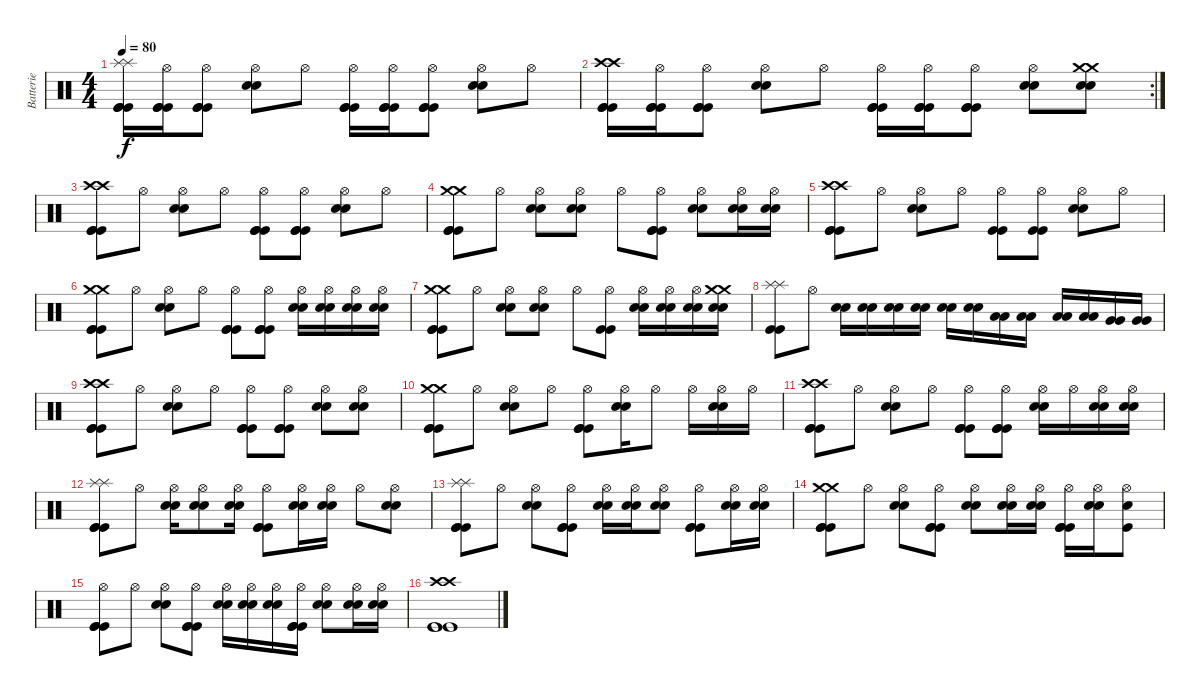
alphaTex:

\track ("Batterie" "Batterie") {instrument percussion}
\staff {score}
\articulation defaults
\ts (4 4)
\tempo 80
\clef neutral
\ks c
("Splash (hit)" "Kick (hit)" "Kick (hit)" "Kick (hit)" "Splash (hit)").16{dy f} ("Kick (hit)" "Kick (hit)" "Kick (hit)" "Hi-Hat (open)").16 ("Kick (hit)" "Kick (hit)" "Hi-Hat (open)" "Kick (hit)").8 ("Snare (hit) 2" "Snare (hit) 2" "Hi-Hat (open)").8 "Hi-Hat (open)".8 ("Kick (hit)" "Kick (hit)" "Kick (hit)" "Hi-Hat (open)").16 ("Kick (hit)" "Hi-Hat (open)" "Kick (hit)" "Kick (hit)").16 ("Kick (hit)" "Kick (hit)" "Hi-Hat (open)" "Kick (hit)").8 ("Snare (hit) 2" "Snare (hit) 2" "Hi-Hat (open)").8 "Hi-Hat (open)".8 |
\rc 2
("Crash high (hit)" "Kick (hit)" "Kick (hit)" "Kick (hit)" "Crash high (hit)").16 ("Kick (hit)" "Kick (hit)" "Kick (hit)" "Hi-Hat (open)").16 ("Kick (hit)" "Kick (hit)" "Hi-Hat (open)" "Kick (hit)").8 ("Snare (hit) 2" "Snare (hit) 2" "Hi-Hat (open)").8 "Hi-Hat (open)".8 ("Kick (hit)" "Kick (hit)" "Hi-Hat (open)" "Kick (hit)").16 ("Kick (hit)" "Kick (hit)" "Kick (hit)" "Hi-Hat (open)").16 ("Kick (hit)" "Kick (hit)" "Hi-Hat (open)" "Kick (hit)").8 ("Snare (hit) 2" "Snare (hit) 2" "Hi-Hat (open)").8 ("Snare (hit) 2" "Snare (hit) 2" "Crash medium (hit)" "Crash medium (hit)").8 |
("Crash high (hit)" "Kick (hit)" "Kick (hit)" "Kick (hit)" "Crash high (hit)").8 "Hi-Hat (open)".8 ("Hi-Hat (open)" "Snare (hit) 2" "Snare (hit) 2").8 "Hi-Hat (open)".8 ("Hi-Hat (open)" "Kick (hit)" "Kick (hit)" "Kick (hit)").8 ("Hi-Hat (open)" "Kick (hit)" "Kick (hit)" "Kick (hit)").8 ("Hi-Hat (open)" "Snare (hit) 2" "Snare (hit) 2").8 "Hi-Hat (open)".8 |
("Crash medium (hit)" "Kick (hit)" "Kick (hit)" "Kick (hit)" "Crash medium (hit)").8 "Hi-Hat (open)".8 ("Hi-Hat (open)" "Snare (hit) 2" "Snare (hit) 2").8 ("Hi-Hat (open)" "Snare (hit) 2" "Snare (hit) 2").8 "Hi-Hat (open)".8 ("Hi-Hat (open)" "Kick (hit)" "Kick (hit)" "Kick (hit)").8 ("Hi-Hat (open)" "Snare (hit) 2" "Snare (hit) 2").8 ("Hi-Hat (open)" "Snare (hit) 2" "Snare (hit) 2").16 ("Hi-Hat (open)" "Snare (hit) 2" "Snare (hit) 2").16 |
("Crash high (hit)" "Kick (hit)" "Kick (hit)" "Kick (hit)" "Crash high (hit)").8 "Hi-Hat (open)".8 ("Hi-Hat (open)" "Snare (hit) 2" "Snare (hit) 2").8 "Hi-Hat (open)".8 ("Hi-Hat (open)" "Kick (hit)" "Kick (hit)").8 ("Hi-Hat (open)" "Kick (hit)" "Kick (hit)").8 ("Hi-Hat (open)" "Snare (hit) 2" "Snare (hit) 2").8 "Hi-Hat (open)".8 |
("Crash medium (hit)" "Kick (hit)" "Kick (hit)" "Kick (hit)" "Crash medium (hit)").8 "Hi-Hat (open)".8 ("Hi-Hat (open)" "Snare (hit) 2" "Snare (hit) 2").8 "Hi-Hat (open)".8 ("Hi-Hat (open)" "Kick (hit)" "Kick (hit)" "Kick (hit)").8 ("Hi-Hat (open)" "Kick (hit)" "Kick (hit)" "Kick (hit)").8 ("Hi-Hat (open)" "Snare (hit) 2" "Snare (hit) 2").16 ("Hi-Hat (open)" "Snare (hit) 2" "Snare (hit) 2").16 ("Hi-Hat (open)" "Snare (hit) 2" "Snare (hit) 2").16 ("Hi-Hat (open)" "Snare (hit) 2" "Snare (hit) 2").16 |
("Crash medium (hit)" "Crash medium (hit)" "Kick (hit)" "Kick (hit)" "Kick (hit)").8 "Hi-Hat (open)".8 ("Hi-Hat (open)" "Snare (hit) 2" "Snare (hit) 2").8 ("Hi-Hat (open)" "Snare (hit) 2" "Snare (hit) 2").8 "Hi-Hat (open)".8 ("Hi-Hat (open)" "Kick (hit)" "Kick (hit)").8 ("Hi-Hat (open)" "Snare (hit) 2" "Snare (hit) 2").16 ("Hi-Hat (open)" "Snare (hit) 2" "Snare (hit) 2").16 ("Hi-Hat (open)" "Snare (hit) 2" "Snare (hit) 2").16 ("Crash medium (hit)" "Crash medium (hit)" "Snare (hit) 2" "Snare (hit) 2").16 |
("Splash (hit)" "Splash (hit)" "Kick (hit)" "Kick (hit)").8 "Hi-Hat (open)".8 ("Snare (hit) 2" "Snare (hit) 2").16 ("Snare (hit) 2" "Snare (hit) 2").16 ("Snare (hit) 2" "Snare (hit) 2").16 ("Snare (hit) 2" "Snare (hit) 2").16 ("Snare (hit) 2" "Snare (hit) 2").16 ("Snare (hit) 2" "Snare (hit) 2").16 ("Low Tom (hit)" "Low Tom (hit)").16 ("Low Tom (hit)" "Low Tom (hit)").16 ("Low Tom (hit)" "Low Tom (hit)").16 ("Low Tom (hit)" "Low Tom (hit)").16 ("Very Low Tom (hit)" "Very Low Tom (hit)").16 ("Very Low Tom (hit)" "Very Low Tom (hit)").16 |
("Crash high (hit)" "Kick (hit)" "Kick (hit)" "Kick (hit)" "Crash high (hit)").8 "Hi-Hat (open)".8 ("Hi-Hat (open)" "Snare (hit) 2" "Snare (hit) 2").8 "Hi-Hat (open)".8 ("Hi-Hat (open)" "Kick (hit)" "Kick (hit)" "Kick (hit)").8 ("Hi-Hat (open)" "Kick (hit)" "Kick (hit)" "Kick (hit)").8 ("Hi-Hat (open)" "Snare (hit) 2" "Snare (hit) 2").8 ("Hi-Hat (open)" "Snare (hit) 2" "Snare (hit) 2").8 |
("Crash medium (hit)" "Kick (hit)" "Kick (hit)" "Kick (hit)" "Crash medium (hit)").8 "Hi-Hat (open)".8 ("Hi-Hat (open)" "Snare (hit) 2" "Snare (hit) 2").8 "Hi-Hat (open)".8 ("Hi-Hat (open)" "Kick (hit)" "Kick (hit)" "Kick (hit)").8 ("Hi-Hat (open)" "Snare (hit) 2" "Snare (hit) 2").16 "Hi-Hat (open)".8 "Hi-Hat (open)".16 ("Hi-Hat (open)" "Snare (hit) 2" "Snare (hit) 2").16 "Hi-Hat (open)".16 |
("Crash high (hit)" "Kick (hit)" "Kick (hit)" "Kick (hit)" "Crash high (hit)").8 "Hi-Hat (open)".8 ("Hi-Hat (open)" "Snare (hit) 2" "Snare (hit) 2").8 "Hi-Hat (open)".8 ("Hi-Hat (open)" "Kick (hit)" "Kick (hit)" "Kick (hit)").8 ("Hi-Hat (open)" "Kick (hit)" "Kick (hit)" "Kick (hit)").8 ("Hi-Hat (open)" "Snare (hit) 2" "Snare (hit) 2").16 "Hi-Hat (open)".16 ("Hi-Hat (open)" "Snare (hit) 2" "Snare (hit) 2").16 ("Hi-Hat (open)" "Snare (hit) 2" "Snare (hit) 2").16 |
("Splash (hit)" "Kick (hit)" "Kick (hit)" "Kick (hit)" "Splash (hit)").8 "Hi-Hat (open)".8 ("Hi-Hat (open)" "Snare (hit) 2" "Snare (hit) 2").16 ("Hi-Hat (open)" "Snare (hit) 2" "Snare (hit) 2").8 ("Hi-Hat (open)" "Snare (hit) 2" "Snare (hit) 2").16 ("Hi-Hat (open)" "Kick (hit)" "Kick (hit)" "Kick (hit)").8 ("Hi-Hat (open)" "Snare (hit) 2" "Snare (hit) 2").16 ("Hi-Hat (open)" "Snare (hit) 2" "Snare (hit) 2").16 "Hi-Hat (open)".8 ("Hi-Hat (open)" "Snare (hit) 2" "Snare (hit) 2").8 |
("Splash (hit)" "Kick (hit)" "Kick (hit)" "Kick (hit)" "Splash (hit)").8 "Hi-Hat (open)".8 ("Hi-Hat (open)" "Snare (hit) 2" "Snare (hit) 2").8 ("Hi-Hat (open)" "Kick (hit)" "Kick (hit)" "Kick (hit)").8 ("Hi-Hat (open)" "Snare (hit) 2" "Snare (hit) 2").16 ("Hi-Hat (open)" "Snare (hit) 2" "Snare (hit) 2").16 ("Hi-Hat (open)" "Snare (hit) 2" "Snare (hit) 2").8 ("Hi-Hat (open)" "Kick (hit)" "Kick (hit)" "Kick (hit)").8 ("Hi-Hat (open)" "Snare (hit) 2" "Snare (hit) 2").16 ("Hi-Hat (open)" "Snare (hit) 2" "Snare (hit) 2").16 |
("Crash medium (hit)" "Kick (hit)" "Kick (hit)" "Kick (hit)" "Crash medium (hit)").8 "Hi-Hat (open)".8 ("Hi-Hat (open)" "Snare (hit) 2" "Snare (hit) 2").8 ("Hi-Hat (open)" "Kick (hit)" "Kick (hit)" "Kick (hit)").8 ("Hi-Hat (open)" "Snare (hit) 2" "Snare (hit) 2").8 ("Hi-Hat (open)" "Snare (hit) 2" "Snare (hit) 2").16 ("Hi-Hat (open)" "Snare (hit) 2" "Snare (hit) 2").16 ("Hi-Hat (open)" "Kick (hit)" "Kick (hit)" "Kick (hit)").16 ("Hi-Hat (open)" "Snare (hit) 2" "Snare (hit) 2").16 ("Hi-Hat (open)" "Snare (hit) 2" "Kick (hit)").8 |
("Hi-Hat (open)" "Kick (hit)" "Kick (hit)" "Kick (hit)").8 "Hi-Hat (open)".8 ("Hi-Hat (open)" "Snare (hit) 2" "Snare (hit) 2").8 ("Hi-Hat (open)" "Kick (hit)" "Kick (hit)" "Kick (hit)").8 ("Hi-Hat (open)" "Snare (hit) 2" "Snare (hit) 2").16 ("Hi-Hat (open)" "Snare (hit) 2" "Snare (hit) 2").16 ("Hi-Hat (open)" "Snare (hit) 2" "Snare (hit) 2").16 ("Hi-Hat (open)" "Kick (hit)" "Kick (hit)" "Kick (hit)").16 ("Hi-Hat (open)" "Snare (hit) 2" "Snare (hit) 2").8 ("Hi-Hat (open)" "Snare (hit) 2" "Snare (hit) 2").16 ("Hi-Hat (open)" "Snare (hit) 2" "Snare (hit) 2").16 |
("Kick (hit)" "Kick (hit)" "Crash high (hit)" "Kick (hit)" "Crash high (hit)").1
